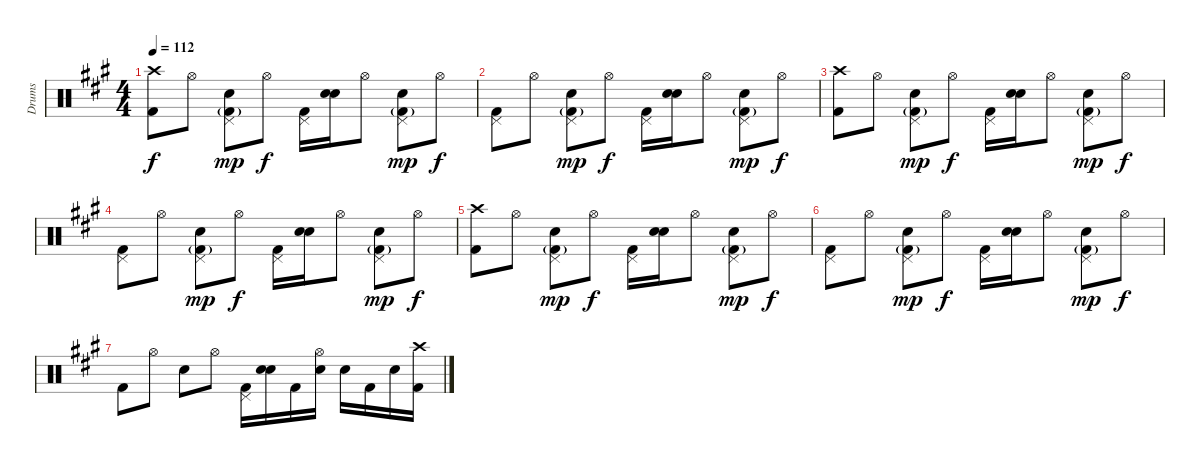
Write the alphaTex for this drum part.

\track ("Drums" "Drums") {instrument percussion}
\staff {score}
\articulation defaults
\ts (4 4)
\tempo 112
\clef neutral
\ks a
("Crash high (hit)" "Kick (hit) 2").8{dy f} "Hi-Hat (open)".8 ("Pedal Hi-Hat (hit)" "Electric Snare (hit)" "Kick (hit) 2"{g}).8{dy mp} "Hi-Hat (open)".8{dy f} ("Pedal Hi-Hat (hit)" "Kick (hit) 2").16 ("Snare (hit)"{x} "Electric Snare (hit)").16 "Hi-Hat (open)".8 ("Pedal Hi-Hat (hit)" "Electric Snare (hit)" "Kick (hit) 2"{g}).8{dy mp} "Hi-Hat (open)".8{dy f} |
("Pedal Hi-Hat (hit)" "Kick (hit) 2").8 "Hi-Hat (open)".8 ("Pedal Hi-Hat (hit)" "Electric Snare (hit)" "Kick (hit) 2"{g}).8{dy mp} "Hi-Hat (open)".8{dy f} ("Pedal Hi-Hat (hit)" "Kick (hit) 2").16 ("Snare (hit)"{x} "Electric Snare (hit)").16 "Hi-Hat (open)".8 ("Pedal Hi-Hat (hit)" "Electric Snare (hit)" "Kick (hit) 2"{g}).8{dy mp} "Hi-Hat (open)".8{dy f} |
("Crash high (hit)" "Kick (hit) 2").8 "Hi-Hat (open)".8 ("Pedal Hi-Hat (hit)" "Electric Snare (hit)" "Kick (hit) 2"{g}).8{dy mp} "Hi-Hat (open)".8{dy f} ("Pedal Hi-Hat (hit)" "Kick (hit) 2").16 ("Snare (hit)"{x} "Electric Snare (hit)").16 "Hi-Hat (open)".8 ("Pedal Hi-Hat (hit)" "Electric Snare (hit)" "Kick (hit) 2"{g}).8{dy mp} "Hi-Hat (open)".8{dy f} |
("Pedal Hi-Hat (hit)" "Kick (hit) 2").8 "Hi-Hat (open)".8 ("Pedal Hi-Hat (hit)" "Electric Snare (hit)" "Kick (hit) 2"{g}).8{dy mp} "Hi-Hat (open)".8{dy f} ("Pedal Hi-Hat (hit)" "Kick (hit) 2").16 ("Snare (hit)"{x} "Electric Snare (hit)").16 "Hi-Hat (open)".8 ("Pedal Hi-Hat (hit)" "Electric Snare (hit)" "Kick (hit) 2"{g}).8{dy mp} "Hi-Hat (open)".8{dy f} |
("Crash high (hit)" "Kick (hit) 2").8 "Hi-Hat (open)".8 ("Pedal Hi-Hat (hit)" "Electric Snare (hit)" "Kick (hit) 2"{g}).8{dy mp} "Hi-Hat (open)".8{dy f} ("Pedal Hi-Hat (hit)" "Kick (hit) 2").16 ("Snare (hit)"{x} "Electric Snare (hit)").16 "Hi-Hat (open)".8 ("Pedal Hi-Hat (hit)" "Electric Snare (hit)" "Kick (hit) 2"{g}).8{dy mp} "Hi-Hat (open)".8{dy f} |
("Pedal Hi-Hat (hit)" "Kick (hit) 2").8 "Hi-Hat (open)".8 ("Pedal Hi-Hat (hit)" "Electric Snare (hit)" "Kick (hit) 2"{g}).8{dy mp} "Hi-Hat (open)".8{dy f} ("Pedal Hi-Hat (hit)" "Kick (hit) 2").16 ("Snare (hit)"{x} "Electric Snare (hit)").16 "Hi-Hat (open)".8 ("Pedal Hi-Hat (hit)" "Electric Snare (hit)" "Kick (hit) 2"{g}).8{dy mp} "Hi-Hat (open)".8{dy f} |
"Kick (hit) 2".8 "Hi-Hat (open)".8 "Electric Snare (hit)".8 "Hi-Hat (open)".8 ("Pedal Hi-Hat (hit)" "Kick (hit) 2").16 ("Electric Snare (hit)" "Snare (hit)"{x}).16 "Kick (hit) 2".16 ("Hi-Hat (open)" "Electric Snare (hit)").16 "Snare (hit)"{x}.16 "Kick (hit) 2".16 "Snare (hit)"{x}.16 ("Crash high (hit)" "Kick (hit) 2").16
